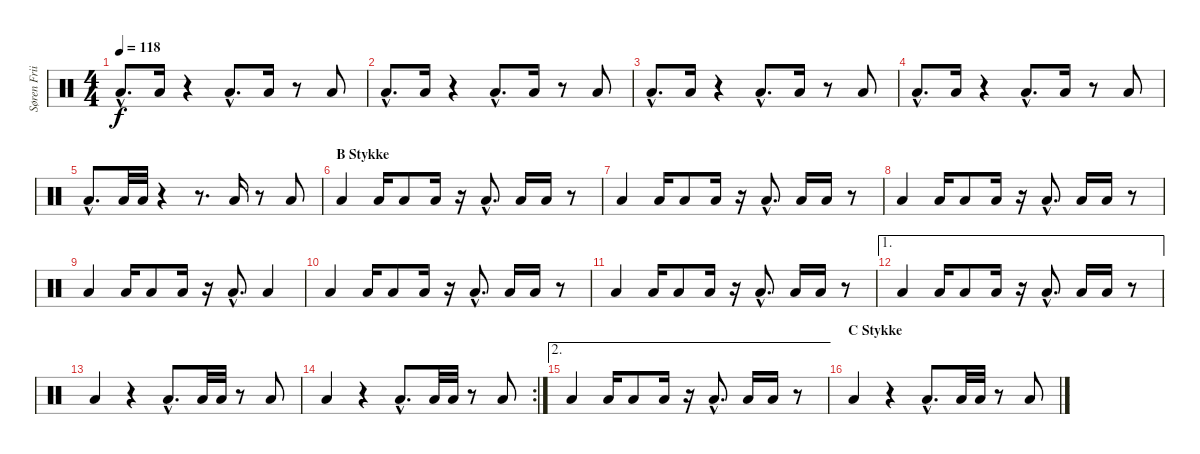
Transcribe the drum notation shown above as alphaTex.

\track ("Søren Friis (Drums)" "Søren Frii") {instrument percussion}
\staff {score}
\articulation defaults
\ts (4 4)
\tempo 118
\clef neutral
\ks c "Low Floor Tom (hit)"{hac}.8{d dy f} "Low Floor Tom (hit)".16
r.4 "Low Floor Tom (hit)"{hac}.8{d} "Low Floor Tom (hit)".16 r.8 "Low Floor Tom (hit)".8 |
"Low Floor Tom (hit)"{hac}.8{d} "Low Floor Tom (hit)".16 r.4 "Low Floor Tom (hit)"{hac}.8{d} "Low Floor Tom (hit)".16 r.8 "Low Floor Tom (hit)".8 |
"Low Floor Tom (hit)"{hac}.8{d} "Low Floor Tom (hit)".16 r.4 "Low Floor Tom (hit)"{hac}.8{d} "Low Floor Tom (hit)".16 r.8 "Low Floor Tom (hit)".8 |
"Low Floor Tom (hit)"{hac}.8{d} "Low Floor Tom (hit)".16 r.4 "Low Floor Tom (hit)"{hac}.8{d} "Low Floor Tom (hit)".16 r.8 "Low Floor Tom (hit)".8 |
"Low Floor Tom (hit)"{hac}.8{d} "Low Floor Tom (hit)".32 "Low Floor Tom (hit)".32 r.4 r.8{d} "Low Floor Tom (hit)".16 r.8 "Low Floor Tom (hit)".8 |
\section ("" "B Stykke")
"Low Floor Tom (hit)".4 "Low Floor Tom (hit)".16 "Low Floor Tom (hit)".8 "Low Floor Tom (hit)".16 r.16 "Low Floor Tom (hit)"{hac}.8{d} "Low Floor Tom (hit)".16 "Low Floor Tom (hit)".16 r.8 |
"Low Floor Tom (hit)".4 "Low Floor Tom (hit)".16 "Low Floor Tom (hit)".8 "Low Floor Tom (hit)".16 r.16 "Low Floor Tom (hit)"{hac}.8{d} "Low Floor Tom (hit)".16 "Low Floor Tom (hit)".16 r.8 |
"Low Floor Tom (hit)".4 "Low Floor Tom (hit)".16 "Low Floor Tom (hit)".8 "Low Floor Tom (hit)".16 r.16 "Low Floor Tom (hit)"{hac}.8{d} "Low Floor Tom (hit)".16 "Low Floor Tom (hit)".16 r.8 |
"Low Floor Tom (hit)".4 "Low Floor Tom (hit)".16 "Low Floor Tom (hit)".8 "Low Floor Tom (hit)".16 r.16 "Low Floor Tom (hit)"{hac}.8{d} "Low Floor Tom (hit)".4 |
"Low Floor Tom (hit)".4 "Low Floor Tom (hit)".16 "Low Floor Tom (hit)".8 "Low Floor Tom (hit)".16 r.16 "Low Floor Tom (hit)"{hac}.8{d} "Low Floor Tom (hit)".16 "Low Floor Tom (hit)".16 r.8 |
"Low Floor Tom (hit)".4 "Low Floor Tom (hit)".16 "Low Floor Tom (hit)".8 "Low Floor Tom (hit)".16 r.16 "Low Floor Tom (hit)"{hac}.8{d} "Low Floor Tom (hit)".16 "Low Floor Tom (hit)".16 r.8 |
\ae 1 "Low Floor Tom (hit)".4 "Low Floor Tom (hit)".16 "Low Floor Tom (hit)".8 "Low Floor Tom (hit)".16
r.16 "Low Floor Tom (hit)"{hac}.8{d} "Low Floor Tom (hit)".16 "Low Floor Tom (hit)".16 r.8 |
"Low Floor Tom (hit)".4 r.4 "Low Floor Tom (hit)"{hac}.8{d} "Low Floor Tom (hit)".32 "Low Floor Tom (hit)".32 r.8 "Low Floor Tom (hit)".8 |
\rc 2 "Low Floor Tom (hit)".4
r.4 "Low Floor Tom (hit)"{hac}.8{d} "Low Floor Tom (hit)".32 "Low Floor Tom (hit)".32 r.8 "Low Floor Tom (hit)".8 |
\ae 2 "Low Floor Tom (hit)".4 "Low Floor Tom (hit)".16 "Low Floor Tom (hit)".8 "Low Floor Tom (hit)".16
r.16 "Low Floor Tom (hit)"{hac}.8{d} "Low Floor Tom (hit)".16 "Low Floor Tom (hit)".16 r.8 |
\section ("" "C Stykke")
"Low Floor Tom (hit)".4 r.4 "Low Floor Tom (hit)"{hac}.8{d} "Low Floor Tom (hit)".32 "Low Floor Tom (hit)".32 r.8 "Low Floor Tom (hit)".8
